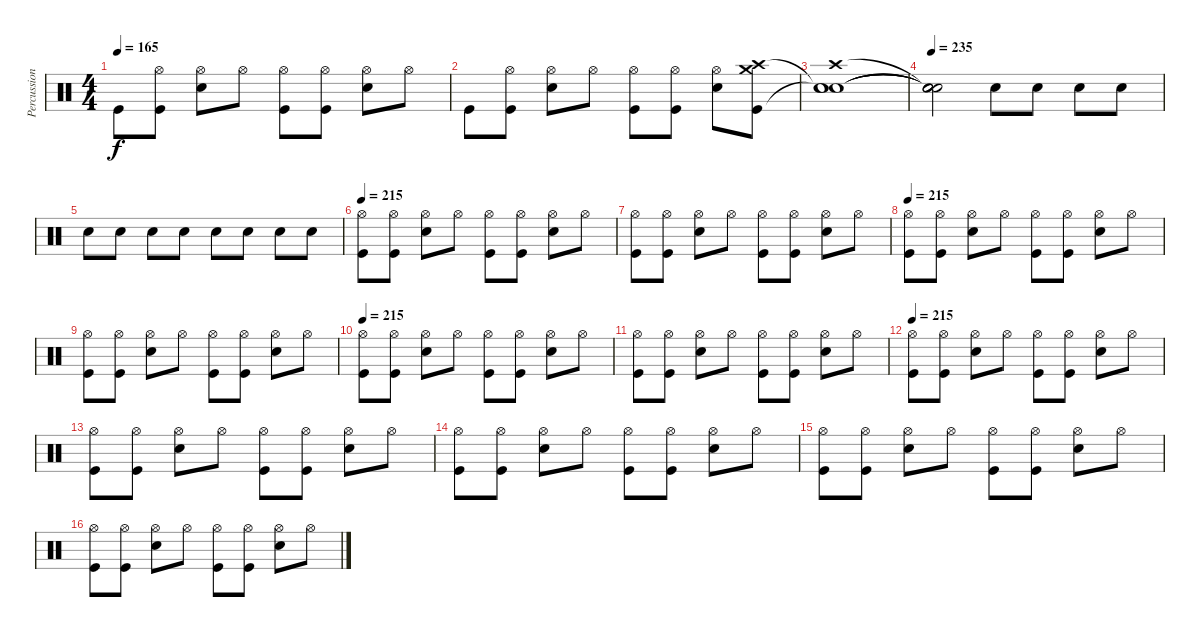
\track ("Percussion" "Percussion") {instrument percussion}
\staff {score}
\articulation defaults
\ts (4 4)
\tempo 165
\clef neutral
\ks c "Kick (hit)".8{dy f}
("Hi-Hat (open)" "Kick (hit)").8 ("Hi-Hat (open)" "Snare (hit) 2").8 "Hi-Hat (open)".8 ("Hi-Hat (open)" "Kick (hit)").8 ("Hi-Hat (open)" "Kick (hit)").8 ("Hi-Hat (open)" "Snare (hit) 2").8 "Hi-Hat (open)".8 |
"Kick (hit)".8 ("Hi-Hat (open)" "Kick (hit)").8 ("Hi-Hat (open)" "Snare (hit) 2").8 "Hi-Hat (open)".8 ("Hi-Hat (open)" "Kick (hit)").8 ("Hi-Hat (open)" "Kick (hit)").8 ("Hi-Hat (open)" "Snare (hit) 2").8 ("Crash high (hit)" "Crash medium (hit)" "Kick (hit)").8 |
("Snare (hit)"{t} "Crash high (hit)" "Snare (hit)"{t} "Snare (hit)").1 |
\tempo 235
("Snare (hit)"{t} "Snare (hit)"{t} "Snare (hit)"{t} "Snare (hit)"{t}).2 "Snare (hit) 2".8 "Snare (hit) 2".8 "Snare (hit) 2".8 "Snare (hit) 2".8 |
"Snare (hit) 2".8 "Snare (hit) 2".8 "Snare (hit) 2".8 "Snare (hit) 2".8 "Snare (hit) 2".8 "Snare (hit) 2".8 "Snare (hit) 2".8 "Snare (hit) 2".8 |
\tempo 215
("Hi-Hat (open)" "Kick (hit)").8 ("Hi-Hat (open)" "Kick (hit)").8 ("Snare (hit) 2" "Hi-Hat (open)").8 "Hi-Hat (open)".8 ("Hi-Hat (open)" "Kick (hit)").8 ("Hi-Hat (open)" "Kick (hit)").8 ("Snare (hit) 2" "Hi-Hat (open)").8 "Hi-Hat (open)".8 |
("Hi-Hat (open)" "Kick (hit)").8 ("Hi-Hat (open)" "Kick (hit)").8 ("Snare (hit) 2" "Hi-Hat (open)").8 "Hi-Hat (open)".8 ("Hi-Hat (open)" "Kick (hit)").8 ("Hi-Hat (open)" "Kick (hit)").8 ("Snare (hit) 2" "Hi-Hat (open)").8 "Hi-Hat (open)".8 |
\tempo 215
("Hi-Hat (open)" "Kick (hit)").8 ("Hi-Hat (open)" "Kick (hit)").8 ("Snare (hit) 2" "Hi-Hat (open)").8 "Hi-Hat (open)".8 ("Hi-Hat (open)" "Kick (hit)").8 ("Hi-Hat (open)" "Kick (hit)").8 ("Snare (hit) 2" "Hi-Hat (open)").8 "Hi-Hat (open)".8 |
("Hi-Hat (open)" "Kick (hit)").8 ("Hi-Hat (open)" "Kick (hit)").8 ("Snare (hit) 2" "Hi-Hat (open)").8 "Hi-Hat (open)".8 ("Hi-Hat (open)" "Kick (hit)").8 ("Hi-Hat (open)" "Kick (hit)").8 ("Snare (hit) 2" "Hi-Hat (open)").8 "Hi-Hat (open)".8 |
\tempo 215
("Hi-Hat (open)" "Kick (hit)").8 ("Hi-Hat (open)" "Kick (hit)").8 ("Snare (hit) 2" "Hi-Hat (open)").8 "Hi-Hat (open)".8 ("Hi-Hat (open)" "Kick (hit)").8 ("Hi-Hat (open)" "Kick (hit)").8 ("Snare (hit) 2" "Hi-Hat (open)").8 "Hi-Hat (open)".8 |
("Hi-Hat (open)" "Kick (hit)").8 ("Hi-Hat (open)" "Kick (hit)").8 ("Snare (hit) 2" "Hi-Hat (open)").8 "Hi-Hat (open)".8 ("Hi-Hat (open)" "Kick (hit)").8 ("Hi-Hat (open)" "Kick (hit)").8 ("Snare (hit) 2" "Hi-Hat (open)").8 "Hi-Hat (open)".8 |
\tempo 215
("Hi-Hat (open)" "Kick (hit)").8 ("Hi-Hat (open)" "Kick (hit)").8 ("Snare (hit) 2" "Hi-Hat (open)").8 "Hi-Hat (open)".8 ("Hi-Hat (open)" "Kick (hit)").8 ("Hi-Hat (open)" "Kick (hit)").8 ("Snare (hit) 2" "Hi-Hat (open)").8 "Hi-Hat (open)".8 |
("Hi-Hat (open)" "Kick (hit)").8 ("Hi-Hat (open)" "Kick (hit)").8 ("Snare (hit) 2" "Hi-Hat (open)").8 "Hi-Hat (open)".8 ("Hi-Hat (open)" "Kick (hit)").8 ("Hi-Hat (open)" "Kick (hit)").8 ("Snare (hit) 2" "Hi-Hat (open)").8 "Hi-Hat (open)".8 |
("Hi-Hat (open)" "Kick (hit)").8 ("Hi-Hat (open)" "Kick (hit)").8 ("Snare (hit) 2" "Hi-Hat (open)").8 "Hi-Hat (open)".8 ("Hi-Hat (open)" "Kick (hit)").8 ("Hi-Hat (open)" "Kick (hit)").8 ("Snare (hit) 2" "Hi-Hat (open)").8 "Hi-Hat (open)".8 |
("Hi-Hat (open)" "Kick (hit)").8 ("Hi-Hat (open)" "Kick (hit)").8 ("Snare (hit) 2" "Hi-Hat (open)").8 "Hi-Hat (open)".8 ("Hi-Hat (open)" "Kick (hit)").8 ("Hi-Hat (open)" "Kick (hit)").8 ("Snare (hit) 2" "Hi-Hat (open)").8 "Hi-Hat (open)".8 |
("Hi-Hat (open)" "Kick (hit)").8 ("Hi-Hat (open)" "Kick (hit)").8 ("Snare (hit) 2" "Hi-Hat (open)").8 "Hi-Hat (open)".8 ("Hi-Hat (open)" "Kick (hit)").8 ("Hi-Hat (open)" "Kick (hit)").8 ("Snare (hit) 2" "Hi-Hat (open)").8 "Hi-Hat (open)".8
